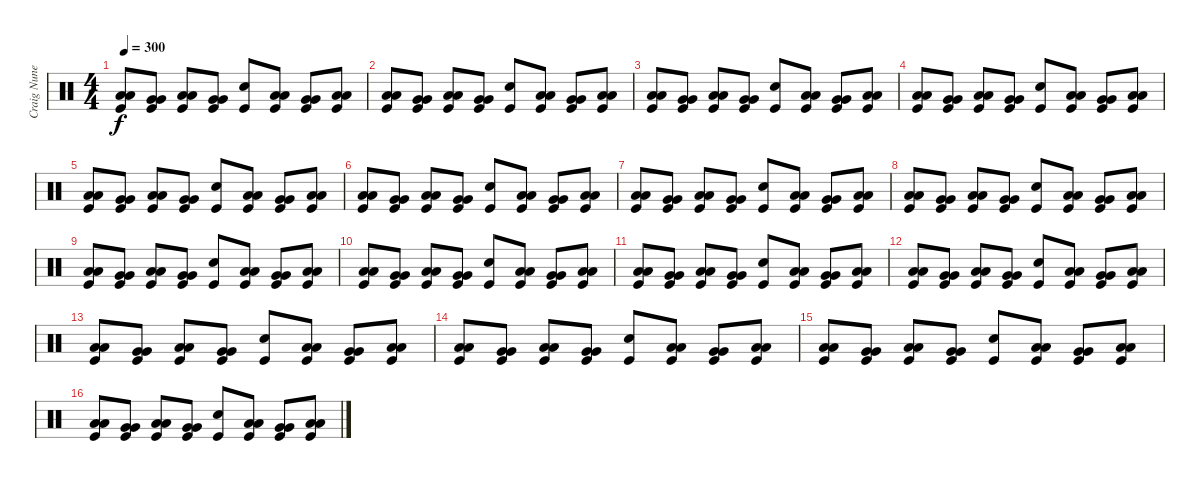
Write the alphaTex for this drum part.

\track ("Craig Nunenmacher" "Craig Nune") {instrument percussion}
\staff {score}
\articulation defaults
\ts (4 4)
\tempo 300
\clef neutral
\ks c
("Low Tom (hit)" "Low Tom (hit)" "Kick (hit)").8{dy f} ("Very Low Tom (hit)" "Very Low Tom (hit)" "Kick (hit)").8 ("Low Tom (hit)" "Low Tom (hit)" "Kick (hit)").8 ("Very Low Tom (hit)" "Very Low Tom (hit)" "Kick (hit)").8 ("Snare (hit) 2" "Kick (hit)").8 ("Low Tom (hit)" "Low Tom (hit)" "Kick (hit)").8 ("Very Low Tom (hit)" "Very Low Tom (hit)" "Kick (hit)").8 ("Low Tom (hit)" "Low Tom (hit)" "Kick (hit)").8 |
("Low Tom (hit)" "Low Tom (hit)" "Kick (hit)").8 ("Very Low Tom (hit)" "Very Low Tom (hit)" "Kick (hit)").8 ("Low Tom (hit)" "Low Tom (hit)" "Kick (hit)").8 ("Very Low Tom (hit)" "Very Low Tom (hit)" "Kick (hit)").8 ("Snare (hit) 2" "Kick (hit)").8 ("Low Tom (hit)" "Low Tom (hit)" "Kick (hit)").8 ("Very Low Tom (hit)" "Very Low Tom (hit)" "Kick (hit)").8 ("Low Tom (hit)" "Low Tom (hit)" "Kick (hit)").8 |
("Low Tom (hit)" "Low Tom (hit)" "Kick (hit)").8 ("Very Low Tom (hit)" "Very Low Tom (hit)" "Kick (hit)").8 ("Low Tom (hit)" "Low Tom (hit)" "Kick (hit)").8 ("Very Low Tom (hit)" "Very Low Tom (hit)" "Kick (hit)").8 ("Snare (hit) 2" "Kick (hit)").8 ("Low Tom (hit)" "Low Tom (hit)" "Kick (hit)").8 ("Very Low Tom (hit)" "Very Low Tom (hit)" "Kick (hit)").8 ("Low Tom (hit)" "Low Tom (hit)" "Kick (hit)").8 |
("Low Tom (hit)" "Low Tom (hit)" "Kick (hit)").8 ("Very Low Tom (hit)" "Very Low Tom (hit)" "Kick (hit)").8 ("Low Tom (hit)" "Low Tom (hit)" "Kick (hit)").8 ("Very Low Tom (hit)" "Very Low Tom (hit)" "Kick (hit)").8 ("Snare (hit) 2" "Kick (hit)").8 ("Low Tom (hit)" "Low Tom (hit)" "Kick (hit)").8 ("Very Low Tom (hit)" "Very Low Tom (hit)" "Kick (hit)").8 ("Low Tom (hit)" "Low Tom (hit)" "Kick (hit)").8 |
("Low Tom (hit)" "Low Tom (hit)" "Kick (hit)").8 ("Very Low Tom (hit)" "Very Low Tom (hit)" "Kick (hit)").8 ("Low Tom (hit)" "Low Tom (hit)" "Kick (hit)").8 ("Very Low Tom (hit)" "Very Low Tom (hit)" "Kick (hit)").8 ("Snare (hit) 2" "Kick (hit)").8 ("Low Tom (hit)" "Low Tom (hit)" "Kick (hit)").8 ("Very Low Tom (hit)" "Very Low Tom (hit)" "Kick (hit)").8 ("Low Tom (hit)" "Low Tom (hit)" "Kick (hit)").8 |
("Low Tom (hit)" "Low Tom (hit)" "Kick (hit)").8 ("Very Low Tom (hit)" "Very Low Tom (hit)" "Kick (hit)").8 ("Low Tom (hit)" "Low Tom (hit)" "Kick (hit)").8 ("Very Low Tom (hit)" "Very Low Tom (hit)" "Kick (hit)").8 ("Snare (hit) 2" "Kick (hit)").8 ("Low Tom (hit)" "Low Tom (hit)" "Kick (hit)").8 ("Very Low Tom (hit)" "Very Low Tom (hit)" "Kick (hit)").8 ("Low Tom (hit)" "Low Tom (hit)" "Kick (hit)").8 |
("Low Tom (hit)" "Low Tom (hit)" "Kick (hit)").8 ("Very Low Tom (hit)" "Very Low Tom (hit)" "Kick (hit)").8 ("Low Tom (hit)" "Low Tom (hit)" "Kick (hit)").8 ("Very Low Tom (hit)" "Very Low Tom (hit)" "Kick (hit)").8 ("Snare (hit) 2" "Kick (hit)").8 ("Low Tom (hit)" "Low Tom (hit)" "Kick (hit)").8 ("Very Low Tom (hit)" "Very Low Tom (hit)" "Kick (hit)").8 ("Low Tom (hit)" "Low Tom (hit)" "Kick (hit)").8 |
("Low Tom (hit)" "Low Tom (hit)" "Kick (hit)").8 ("Very Low Tom (hit)" "Very Low Tom (hit)" "Kick (hit)").8 ("Low Tom (hit)" "Low Tom (hit)" "Kick (hit)").8 ("Very Low Tom (hit)" "Very Low Tom (hit)" "Kick (hit)").8 ("Snare (hit) 2" "Kick (hit)").8 ("Low Tom (hit)" "Low Tom (hit)" "Kick (hit)").8 ("Very Low Tom (hit)" "Very Low Tom (hit)" "Kick (hit)").8 ("Low Tom (hit)" "Low Tom (hit)" "Kick (hit)").8 |
("Low Tom (hit)" "Low Tom (hit)" "Kick (hit)").8 ("Very Low Tom (hit)" "Very Low Tom (hit)" "Kick (hit)").8 ("Low Tom (hit)" "Low Tom (hit)" "Kick (hit)").8 ("Very Low Tom (hit)" "Very Low Tom (hit)" "Kick (hit)").8 ("Snare (hit) 2" "Kick (hit)").8 ("Low Tom (hit)" "Low Tom (hit)" "Kick (hit)").8 ("Very Low Tom (hit)" "Very Low Tom (hit)" "Kick (hit)").8 ("Low Tom (hit)" "Low Tom (hit)" "Kick (hit)").8 |
("Low Tom (hit)" "Low Tom (hit)" "Kick (hit)").8 ("Very Low Tom (hit)" "Very Low Tom (hit)" "Kick (hit)").8 ("Low Tom (hit)" "Low Tom (hit)" "Kick (hit)").8 ("Very Low Tom (hit)" "Very Low Tom (hit)" "Kick (hit)").8 ("Snare (hit) 2" "Kick (hit)").8 ("Low Tom (hit)" "Low Tom (hit)" "Kick (hit)").8 ("Very Low Tom (hit)" "Very Low Tom (hit)" "Kick (hit)").8 ("Low Tom (hit)" "Low Tom (hit)" "Kick (hit)").8 |
("Low Tom (hit)" "Low Tom (hit)" "Kick (hit)").8 ("Very Low Tom (hit)" "Very Low Tom (hit)" "Kick (hit)").8 ("Low Tom (hit)" "Low Tom (hit)" "Kick (hit)").8 ("Very Low Tom (hit)" "Very Low Tom (hit)" "Kick (hit)").8 ("Snare (hit) 2" "Kick (hit)").8 ("Low Tom (hit)" "Low Tom (hit)" "Kick (hit)").8 ("Very Low Tom (hit)" "Very Low Tom (hit)" "Kick (hit)").8 ("Low Tom (hit)" "Low Tom (hit)" "Kick (hit)").8 |
("Low Tom (hit)" "Low Tom (hit)" "Kick (hit)").8 ("Very Low Tom (hit)" "Very Low Tom (hit)" "Kick (hit)").8 ("Low Tom (hit)" "Low Tom (hit)" "Kick (hit)").8 ("Very Low Tom (hit)" "Very Low Tom (hit)" "Kick (hit)").8 ("Snare (hit) 2" "Kick (hit)").8 ("Low Tom (hit)" "Low Tom (hit)" "Kick (hit)").8 ("Very Low Tom (hit)" "Very Low Tom (hit)" "Kick (hit)").8 ("Low Tom (hit)" "Low Tom (hit)" "Kick (hit)").8 |
("Low Tom (hit)" "Low Tom (hit)" "Kick (hit)").8 ("Very Low Tom (hit)" "Very Low Tom (hit)" "Kick (hit)").8 ("Low Tom (hit)" "Low Tom (hit)" "Kick (hit)").8 ("Very Low Tom (hit)" "Very Low Tom (hit)" "Kick (hit)").8 ("Snare (hit) 2" "Kick (hit)").8 ("Low Tom (hit)" "Low Tom (hit)" "Kick (hit)").8 ("Very Low Tom (hit)" "Very Low Tom (hit)" "Kick (hit)").8 ("Low Tom (hit)" "Low Tom (hit)" "Kick (hit)").8 |
("Low Tom (hit)" "Low Tom (hit)" "Kick (hit)").8 ("Very Low Tom (hit)" "Very Low Tom (hit)" "Kick (hit)").8 ("Low Tom (hit)" "Low Tom (hit)" "Kick (hit)").8 ("Very Low Tom (hit)" "Very Low Tom (hit)" "Kick (hit)").8 ("Snare (hit) 2" "Kick (hit)").8 ("Low Tom (hit)" "Low Tom (hit)" "Kick (hit)").8 ("Very Low Tom (hit)" "Very Low Tom (hit)" "Kick (hit)").8 ("Low Tom (hit)" "Low Tom (hit)" "Kick (hit)").8 |
("Low Tom (hit)" "Low Tom (hit)" "Kick (hit)").8 ("Very Low Tom (hit)" "Very Low Tom (hit)" "Kick (hit)").8 ("Low Tom (hit)" "Low Tom (hit)" "Kick (hit)").8 ("Very Low Tom (hit)" "Very Low Tom (hit)" "Kick (hit)").8 ("Snare (hit) 2" "Kick (hit)").8 ("Low Tom (hit)" "Low Tom (hit)" "Kick (hit)").8 ("Very Low Tom (hit)" "Very Low Tom (hit)" "Kick (hit)").8 ("Low Tom (hit)" "Low Tom (hit)" "Kick (hit)").8 |
("Low Tom (hit)" "Low Tom (hit)" "Kick (hit)").8 ("Very Low Tom (hit)" "Very Low Tom (hit)" "Kick (hit)").8 ("Low Tom (hit)" "Low Tom (hit)" "Kick (hit)").8 ("Very Low Tom (hit)" "Very Low Tom (hit)" "Kick (hit)").8 ("Snare (hit) 2" "Kick (hit)").8 ("Low Tom (hit)" "Low Tom (hit)" "Kick (hit)").8 ("Very Low Tom (hit)" "Very Low Tom (hit)" "Kick (hit)").8 ("Low Tom (hit)" "Low Tom (hit)" "Kick (hit)").8
